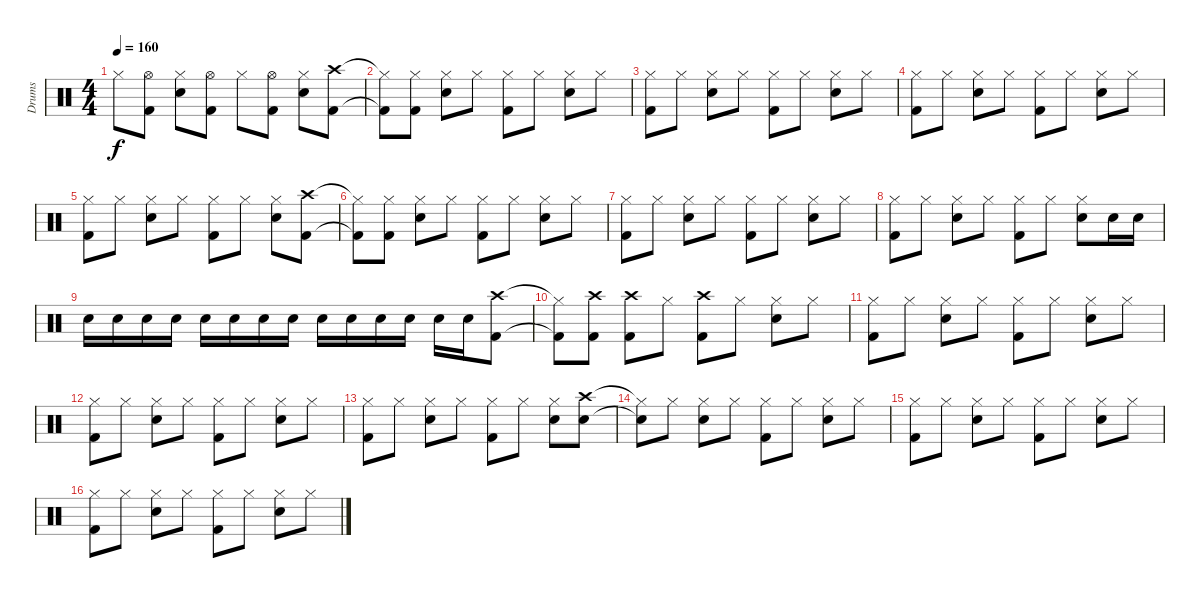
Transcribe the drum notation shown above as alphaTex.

\track ("Drums" "Drums") {instrument percussion}
\staff {score}
\articulation defaults
\ts (4 4)
\tempo 160
\clef neutral
\ks c "Hi-Hat (closed)".8{dy f}
("Hi-Hat (open)" "Kick (hit) 2").8 ("Hi-Hat (closed)" "Electric Snare (hit)").8 ("Hi-Hat (open)" "Kick (hit) 2").8 "Hi-Hat (closed)".8 ("Hi-Hat (open)" "Kick (hit) 2").8 ("Hi-Hat (closed)" "Electric Snare (hit)").8 ("Crash high (hit)" "Kick (hit) 2").8 |
("Hi-Hat (closed)"{t} "Kick (hit) 2"{t}).8 ("Hi-Hat (closed)" "Kick (hit) 2").8 ("Hi-Hat (closed)" "Electric Snare (hit)").8 "Hi-Hat (closed)".8 ("Hi-Hat (closed)" "Kick (hit) 2").8 "Hi-Hat (closed)".8 ("Hi-Hat (closed)" "Electric Snare (hit)").8 "Hi-Hat (closed)".8 |
("Hi-Hat (closed)" "Kick (hit) 2").8 "Hi-Hat (closed)".8 ("Hi-Hat (closed)" "Electric Snare (hit)").8 "Hi-Hat (closed)".8 ("Hi-Hat (closed)" "Kick (hit) 2").8 "Hi-Hat (closed)".8 ("Hi-Hat (closed)" "Electric Snare (hit)").8 "Hi-Hat (closed)".8 |
("Hi-Hat (closed)" "Kick (hit) 2").8 "Hi-Hat (closed)".8 ("Hi-Hat (closed)" "Electric Snare (hit)").8 "Hi-Hat (closed)".8 ("Hi-Hat (closed)" "Kick (hit) 2").8 "Hi-Hat (closed)".8 ("Hi-Hat (closed)" "Electric Snare (hit)").8 "Hi-Hat (closed)".8 |
("Hi-Hat (closed)" "Kick (hit) 2").8 "Hi-Hat (closed)".8 ("Hi-Hat (closed)" "Electric Snare (hit)").8 "Hi-Hat (closed)".8 ("Hi-Hat (closed)" "Kick (hit) 2").8 "Hi-Hat (closed)".8 ("Hi-Hat (closed)" "Electric Snare (hit)").8 ("Crash high (hit)" "Kick (hit) 2").8 |
("Hi-Hat (closed)"{t} "Kick (hit) 2"{t}).8 ("Hi-Hat (closed)" "Kick (hit) 2").8 ("Hi-Hat (closed)" "Electric Snare (hit)").8 "Hi-Hat (closed)".8 ("Hi-Hat (closed)" "Kick (hit) 2").8 "Hi-Hat (closed)".8 ("Hi-Hat (closed)" "Electric Snare (hit)").8 "Hi-Hat (closed)".8 |
("Hi-Hat (closed)" "Kick (hit) 2").8 "Hi-Hat (closed)".8 ("Hi-Hat (closed)" "Electric Snare (hit)").8 "Hi-Hat (closed)".8 ("Hi-Hat (closed)" "Kick (hit) 2").8 "Hi-Hat (closed)".8 ("Hi-Hat (closed)" "Electric Snare (hit)").8 "Hi-Hat (closed)".8 |
("Hi-Hat (closed)" "Kick (hit) 2").8 "Hi-Hat (closed)".8 ("Hi-Hat (closed)" "Electric Snare (hit)").8 "Hi-Hat (closed)".8 ("Hi-Hat (closed)" "Kick (hit) 2").8 "Hi-Hat (closed)".8 ("Hi-Hat (closed)" "Electric Snare (hit)").8 "Electric Snare (hit)".16 "Electric Snare (hit)".16 |
"Electric Snare (hit)".16 "Electric Snare (hit)".16 "Electric Snare (hit)".16 "Electric Snare (hit)".16 "Electric Snare (hit)".16 "Electric Snare (hit)".16 "Electric Snare (hit)".16 "Electric Snare (hit)".16 "Electric Snare (hit)".16 "Electric Snare (hit)".16 "Electric Snare (hit)".16 "Electric Snare (hit)".16 "Electric Snare (hit)".16 "Electric Snare (hit)".16 ("Crash high (hit)" "Kick (hit) 2").8 |
("Hi-Hat (closed)"{t} "Kick (hit) 2"{t}).8 ("Crash high (hit)" "Kick (hit) 2").8 ("Crash high (hit)" "Kick (hit) 2").8 "Hi-Hat (closed)".8 ("Crash high (hit)" "Kick (hit) 2").8 "Hi-Hat (closed)".8 ("Hi-Hat (closed)" "Electric Snare (hit)").8 "Hi-Hat (closed)".8 |
("Hi-Hat (closed)" "Kick (hit) 2").8 "Hi-Hat (closed)".8 ("Hi-Hat (closed)" "Electric Snare (hit)").8 "Hi-Hat (closed)".8 ("Hi-Hat (closed)" "Kick (hit) 2").8 "Hi-Hat (closed)".8 ("Hi-Hat (closed)" "Electric Snare (hit)").8 "Hi-Hat (closed)".8 |
("Hi-Hat (closed)" "Kick (hit) 2").8 "Hi-Hat (closed)".8 ("Hi-Hat (closed)" "Electric Snare (hit)").8 "Hi-Hat (closed)".8 ("Hi-Hat (closed)" "Kick (hit) 2").8 "Hi-Hat (closed)".8 ("Hi-Hat (closed)" "Electric Snare (hit)").8 "Hi-Hat (closed)".8 |
("Hi-Hat (closed)" "Kick (hit) 2").8 "Hi-Hat (closed)".8 ("Hi-Hat (closed)" "Electric Snare (hit)").8 "Hi-Hat (closed)".8 ("Hi-Hat (closed)" "Kick (hit) 2").8 "Hi-Hat (closed)".8 ("Hi-Hat (closed)" "Electric Snare (hit)").8 ("Crash high (hit)" "Electric Snare (hit)").8 |
("Hi-Hat (closed)"{t} "Snare (hit)"{t}).8 "Hi-Hat (closed)".8 ("Hi-Hat (closed)" "Electric Snare (hit)").8 "Hi-Hat (closed)".8 ("Hi-Hat (closed)" "Kick (hit) 2").8 "Hi-Hat (closed)".8 ("Hi-Hat (closed)" "Electric Snare (hit)").8 "Hi-Hat (closed)".8 |
("Hi-Hat (closed)" "Kick (hit) 2").8 "Hi-Hat (closed)".8 ("Hi-Hat (closed)" "Electric Snare (hit)").8 "Hi-Hat (closed)".8 ("Hi-Hat (closed)" "Kick (hit) 2").8 "Hi-Hat (closed)".8 ("Hi-Hat (closed)" "Electric Snare (hit)").8 "Hi-Hat (closed)".8 |
("Hi-Hat (closed)" "Kick (hit) 2").8 "Hi-Hat (closed)".8 ("Hi-Hat (closed)" "Electric Snare (hit)").8 "Hi-Hat (closed)".8 ("Hi-Hat (closed)" "Kick (hit) 2").8 "Hi-Hat (closed)".8 ("Hi-Hat (closed)" "Electric Snare (hit)").8 "Hi-Hat (closed)".8
